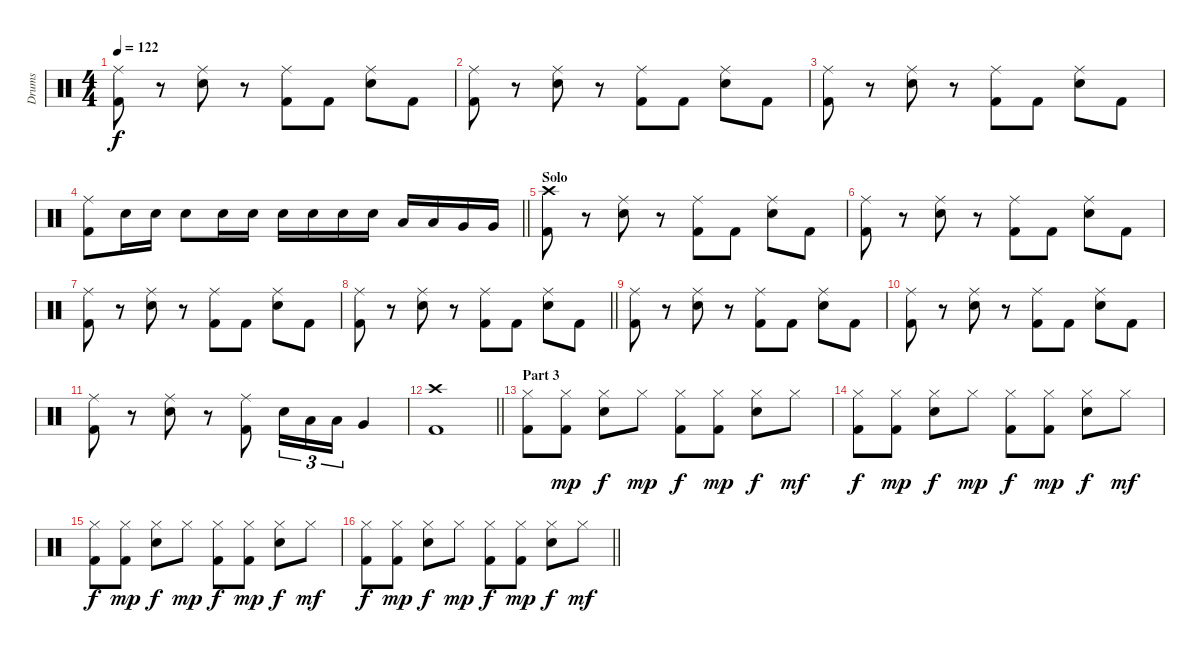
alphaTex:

\track ("Drums" "Drums") {instrument percussion}
\staff {score}
\articulation defaults
\ts (4 4)
\tempo 122
\clef neutral
\ks c
("Kick (hit) 2" "Ride (middle)").8{dy f} r.8 ("Snare (hit) 2" "Ride (middle)").8 r.8 ("Kick (hit) 2" "Ride (middle)").8 "Kick (hit) 2".8 ("Snare (hit) 2" "Ride (middle)").8 "Kick (hit) 2".8 |
("Kick (hit) 2" "Ride (middle)").8 r.8 ("Snare (hit) 2" "Ride (middle)").8 r.8 ("Kick (hit) 2" "Ride (middle)").8 "Kick (hit) 2".8 ("Snare (hit) 2" "Ride (middle)").8 "Kick (hit) 2".8 |
("Kick (hit) 2" "Ride (middle)").8 r.8 ("Snare (hit) 2" "Ride (middle)").8 r.8 ("Kick (hit) 2" "Ride (middle)").8 "Kick (hit) 2".8 ("Snare (hit) 2" "Ride (middle)").8 "Kick (hit) 2".8 |
\barLineRight lightlight
("Kick (hit) 2" "Ride (middle)").8 "Snare (hit) 2".16 "Snare (hit) 2".16 "Snare (hit) 2".8 "Snare (hit) 2".16 "Snare (hit) 2".16 "Snare (hit) 2".16 "Snare (hit) 2".16 "Snare (hit) 2".16 "Snare (hit) 2".16 "Low Tom (hit)".16 "Low Tom (hit)".16 "Very Low Tom (hit)".16 "Very Low Tom (hit)".16 |
\section ("" "Solo")
("Kick (hit) 2" "Crash high (hit)").8 r.8 ("Snare (hit) 2" "Ride (middle)").8 r.8 ("Kick (hit) 2" "Ride (middle)").8 "Kick (hit) 2".8 ("Snare (hit) 2" "Ride (middle)").8 "Kick (hit) 2".8 |
("Kick (hit) 2" "Ride (middle)").8 r.8 ("Snare (hit) 2" "Ride (middle)").8 r.8 ("Kick (hit) 2" "Ride (middle)").8 "Kick (hit) 2".8 ("Snare (hit) 2" "Ride (middle)").8 "Kick (hit) 2".8 |
("Kick (hit) 2" "Ride (middle)").8 r.8 ("Snare (hit) 2" "Ride (middle)").8 r.8 ("Kick (hit) 2" "Ride (middle)").8 "Kick (hit) 2".8 ("Snare (hit) 2" "Ride (middle)").8 "Kick (hit) 2".8 |
\barLineRight lightlight
("Kick (hit) 2" "Ride (middle)").8 r.8 ("Snare (hit) 2" "Ride (middle)").8 r.8 ("Kick (hit) 2" "Ride (middle)").8 "Kick (hit) 2".8 ("Snare (hit) 2" "Ride (middle)").8 "Kick (hit) 2".8 |
("Kick (hit) 2" "Ride (middle)").8 r.8 ("Snare (hit) 2" "Ride (middle)").8 r.8 ("Kick (hit) 2" "Ride (middle)").8 "Kick (hit) 2".8 ("Snare (hit) 2" "Ride (middle)").8 "Kick (hit) 2".8 |
("Kick (hit) 2" "Ride (middle)").8 r.8 ("Snare (hit) 2" "Ride (middle)").8 r.8 ("Kick (hit) 2" "Ride (middle)").8 "Kick (hit) 2".8 ("Snare (hit) 2" "Ride (middle)").8 "Kick (hit) 2".8 |
("Kick (hit) 2" "Ride (middle)").8 r.8 ("Snare (hit) 2" "Ride (middle)").8 r.8 ("Kick (hit) 2" "Ride (middle)").8 "Snare (hit) 2".16{tu (3 2)} "Low Tom (hit)".16{tu (3 2)} "Low Tom (hit)".16{tu (3 2)} "Very Low Tom (hit)".4 |
\barLineRight lightlight
("Kick (hit) 2" "Crash high (hit)").1 |
\section ("" "Part 3")
("Kick (hit) 2" "Hi-Hat (closed)").8 ("Kick (hit) 2" "Hi-Hat (closed)").8{dy mp} ("Snare (hit) 2" "Hi-Hat (closed)").8{dy f} "Hi-Hat (closed)".8{dy mp} ("Kick (hit) 2" "Hi-Hat (closed)").8{dy f} ("Kick (hit) 2" "Hi-Hat (closed)").8{dy mp} ("Snare (hit) 2" "Hi-Hat (closed)").8{dy f} "Hi-Hat (closed)".8{dy mf} |
("Kick (hit) 2" "Hi-Hat (closed)").8{dy f} ("Kick (hit) 2" "Hi-Hat (closed)").8{dy mp} ("Snare (hit) 2" "Hi-Hat (closed)").8{dy f} "Hi-Hat (closed)".8{dy mp} ("Kick (hit) 2" "Hi-Hat (closed)").8{dy f} ("Kick (hit) 2" "Hi-Hat (closed)").8{dy mp} ("Snare (hit) 2" "Hi-Hat (closed)").8{dy f} "Hi-Hat (closed)".8{dy mf} |
("Kick (hit) 2" "Hi-Hat (closed)").8{dy f} ("Kick (hit) 2" "Hi-Hat (closed)").8{dy mp} ("Snare (hit) 2" "Hi-Hat (closed)").8{dy f} "Hi-Hat (closed)".8{dy mp} ("Kick (hit) 2" "Hi-Hat (closed)").8{dy f} ("Kick (hit) 2" "Hi-Hat (closed)").8{dy mp} ("Snare (hit) 2" "Hi-Hat (closed)").8{dy f} "Hi-Hat (closed)".8{dy mf} |
\barLineRight lightlight
("Kick (hit) 2" "Hi-Hat (closed)").8{dy f} ("Kick (hit) 2" "Hi-Hat (closed)").8{dy mp} ("Snare (hit) 2" "Hi-Hat (closed)").8{dy f} "Hi-Hat (closed)".8{dy mp} ("Kick (hit) 2" "Hi-Hat (closed)").8{dy f} ("Kick (hit) 2" "Hi-Hat (closed)").8{dy mp} ("Snare (hit) 2" "Hi-Hat (closed)").8{dy f} "Hi-Hat (closed)".8{dy mf}
